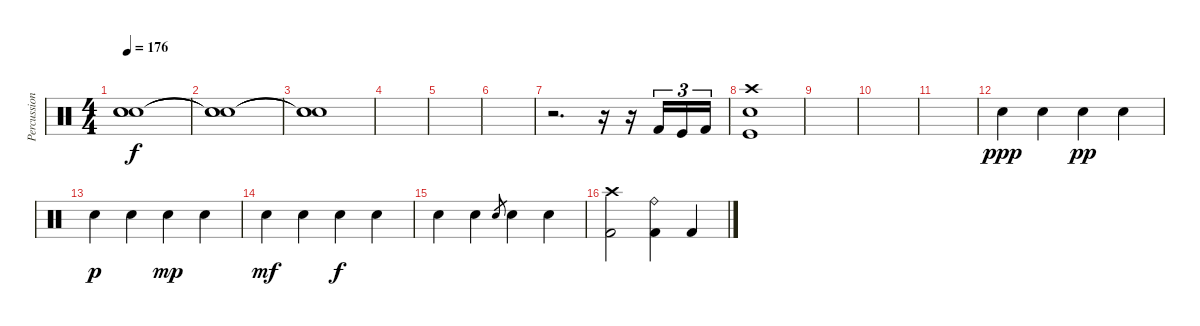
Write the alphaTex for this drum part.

\track ("Percussion" "Percussion") {instrument percussion}
\staff {score}
\articulation defaults
\ts (4 4)
\tempo 176
\clef neutral
\ks c
("Snare (hit)"{t} "Snare (hit)"{t} "Snare (hit)"{t}).1{dy f} |
("Snare (hit)"{t} "Snare (hit)"{t} "Snare (hit)"{t}).1 |
("Snare (hit)"{t} "Snare (hit)"{t} "Snare (hit)"{t}).1 |
|
|
|
r.2{d} r.16 r.16 "Kick (hit) 2".16{tu (3 2)} "Kick (hit)".16{tu (3 2)} "Kick (hit) 2".16{tu (3 2)} |
("Crash high (hit)" "Electric Snare (hit)" "Kick (hit)").1 |
|
|
|
"Electric Snare (hit)".4{dy ppp} "Electric Snare (hit)".4 "Electric Snare (hit)".4{dy pp} "Electric Snare (hit)".4 |
"Electric Snare (hit)".4{dy p} "Electric Snare (hit)".4 "Electric Snare (hit)".4{dy mp} "Electric Snare (hit)".4 |
"Electric Snare (hit)".4{dy mf} "Electric Snare (hit)".4 "Electric Snare (hit)".4{dy f} "Electric Snare (hit)".4 |
"Electric Snare (hit)".4 "Electric Snare (hit)".4 "Electric Snare (hit)".8{gr} "Electric Snare (hit)".4 "Electric Snare (hit)".4 |
("Crash high (hit)" "Kick (hit) 2").2 ("Ride (bell)" "Kick (hit) 2").4 "Kick (hit) 2".4
